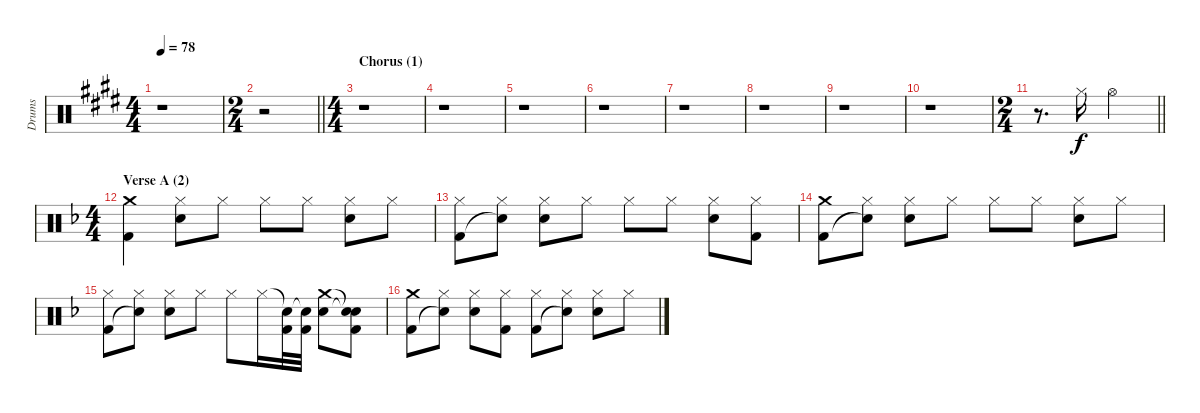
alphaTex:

\track ("Drums" "Drums") {instrument percussion}
\staff {score}
\articulation defaults
\ts (4 4)
\tempo 78
\clef neutral
\ks e
r.1{dy f} |
\ts (2 4)
\barLineRight lightlight
r.2 |
\ts (4 4)
\section ("" "Chorus (1)")
r.1 |
r.1 |
r.1 |
r.1 |
r.1 |
r.1 |
r.1 |
r.1 |
\ts (2 4)
\barLineRight lightlight
r.8{d} "Hi-Hat (closed)".16 "Hi-Hat (open)".4 |
\ts (4 4)
\section ("" "Verse A (2)")
\ks f
("Crash medium (hit)" "Kick (hit) 2").4 ("Hi-Hat (closed)" "Electric Snare (hit)").8 "Hi-Hat (closed)".8 "Hi-Hat (closed)".8 "Hi-Hat (closed)".8 ("Hi-Hat (closed)" "Electric Snare (hit)").8 "Hi-Hat (closed)".8 |
("Hi-Hat (closed)" "Kick (hit) 2").8 ("Hi-Hat (closed)" "Snare (hit)"{t}).8 ("Hi-Hat (closed)" "Electric Snare (hit)").8 "Hi-Hat (closed)".8 "Hi-Hat (closed)".8 "Hi-Hat (closed)".8 ("Hi-Hat (closed)" "Electric Snare (hit)").8 ("Hi-Hat (closed)" "Kick (hit) 2").8 |
("Crash medium (hit)" "Kick (hit) 2").8 ("Hi-Hat (closed)" "Snare (hit)"{t}).8 ("Hi-Hat (closed)" "Electric Snare (hit)").8 "Hi-Hat (closed)".8 "Hi-Hat (closed)".8 "Hi-Hat (closed)".8 ("Hi-Hat (closed)" "Electric Snare (hit)").8 "Hi-Hat (closed)".8 |
("Hi-Hat (closed)" "Kick (hit) 2").8 ("Hi-Hat (closed)" "Snare (hit)"{t}).8 ("Hi-Hat (closed)" "Electric Snare (hit)").8 "Hi-Hat (closed)".8 "Hi-Hat (closed)".8 "Hi-Hat (closed)".16 ("Snare (hit)"{t} "Kick (hit) 2").32 ("Snare (hit)"{t} "Kick (hit) 2").32 ("Crash medium (hit)" "Electric Snare (hit)").8 ("Snare (hit)"{t} "Snare (hit)"{t} "Kick (hit) 2").8 |
("Crash medium (hit)" "Kick (hit) 2").8 ("Hi-Hat (closed)" "Snare (hit)"{t}).8 ("Hi-Hat (closed)" "Electric Snare (hit)").8 ("Hi-Hat (closed)" "Kick (hit) 2").8 ("Hi-Hat (closed)" "Kick (hit) 2").8 ("Hi-Hat (closed)" "Snare (hit)"{t}).8 ("Hi-Hat (closed)" "Electric Snare (hit)").8 "Hi-Hat (closed)".8
